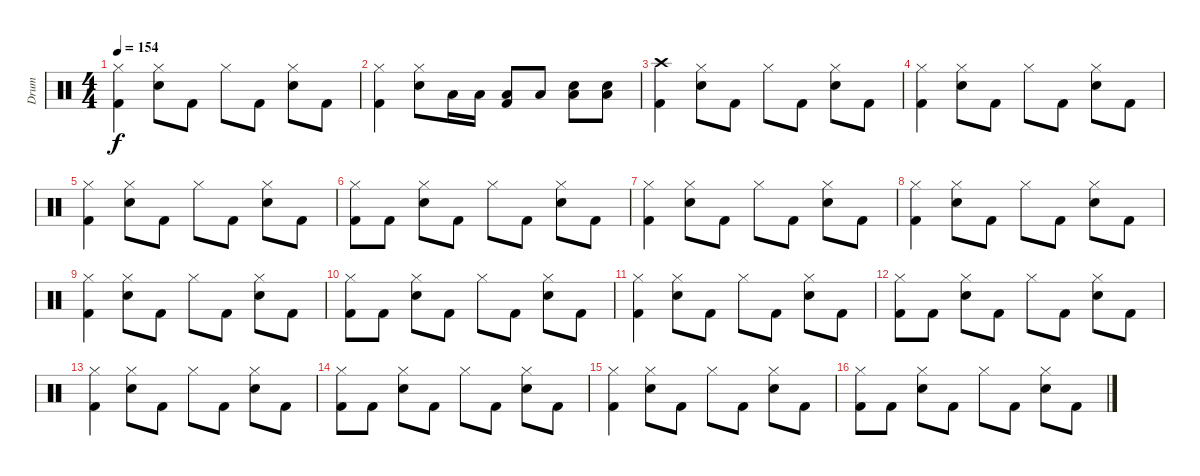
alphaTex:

\track ("Drum" "Drum") {instrument percussion}
\staff {score}
\articulation defaults
\ts (4 4)
\tempo 154
\clef neutral
\ks c
("Hi-Hat (closed)" "Kick (hit) 2").4{dy f} ("Hi-Hat (closed)" "Electric Snare (hit)").8 "Kick (hit) 2".8 "Hi-Hat (closed)".8 "Kick (hit) 2".8 ("Hi-Hat (closed)" "Electric Snare (hit)").8 "Kick (hit) 2".8 |
("Hi-Hat (closed)" "Kick (hit) 2").4 ("Hi-Hat (closed)" "Electric Snare (hit)").8 "Low Tom (hit)".16 "Low Tom (hit)".16 ("Low Tom (hit)" "Kick (hit) 2").8 "Low Tom (hit)".8 ("Electric Snare (hit)" "Low Floor Tom (hit)").8 ("Electric Snare (hit)" "Low Floor Tom (hit)").8 |
("Crash high (hit)" "Kick (hit) 2").4 ("Hi-Hat (closed)" "Electric Snare (hit)").8 "Kick (hit) 2".8 "Hi-Hat (closed)".8 "Kick (hit) 2".8 ("Hi-Hat (closed)" "Electric Snare (hit)").8 "Kick (hit) 2".8 |
("Hi-Hat (closed)" "Kick (hit) 2").4 ("Hi-Hat (closed)" "Electric Snare (hit)").8 "Kick (hit) 2".8 "Hi-Hat (closed)".8 "Kick (hit) 2".8 ("Hi-Hat (closed)" "Electric Snare (hit)").8 "Kick (hit) 2".8 |
("Hi-Hat (closed)" "Kick (hit) 2").4 ("Hi-Hat (closed)" "Electric Snare (hit)").8 "Kick (hit) 2".8 "Hi-Hat (closed)".8 "Kick (hit) 2".8 ("Hi-Hat (closed)" "Electric Snare (hit)").8 "Kick (hit) 2".8 |
("Hi-Hat (closed)" "Kick (hit) 2").8 "Kick (hit) 2".8 ("Hi-Hat (closed)" "Electric Snare (hit)").8 "Kick (hit) 2".8 "Hi-Hat (closed)".8 "Kick (hit) 2".8 ("Hi-Hat (closed)" "Electric Snare (hit)").8 "Kick (hit) 2".8 |
("Hi-Hat (closed)" "Kick (hit) 2").4 ("Hi-Hat (closed)" "Electric Snare (hit)").8 "Kick (hit) 2".8 "Hi-Hat (closed)".8 "Kick (hit) 2".8 ("Hi-Hat (closed)" "Electric Snare (hit)").8 "Kick (hit) 2".8 |
("Hi-Hat (closed)" "Kick (hit) 2").4 ("Hi-Hat (closed)" "Electric Snare (hit)").8 "Kick (hit) 2".8 "Hi-Hat (closed)".8 "Kick (hit) 2".8 ("Hi-Hat (closed)" "Electric Snare (hit)").8 "Kick (hit) 2".8 |
("Hi-Hat (closed)" "Kick (hit) 2").4 ("Hi-Hat (closed)" "Electric Snare (hit)").8 "Kick (hit) 2".8 "Hi-Hat (closed)".8 "Kick (hit) 2".8 ("Hi-Hat (closed)" "Electric Snare (hit)").8 "Kick (hit) 2".8 |
("Hi-Hat (closed)" "Kick (hit) 2").8 "Kick (hit) 2".8 ("Hi-Hat (closed)" "Electric Snare (hit)").8 "Kick (hit) 2".8 "Hi-Hat (closed)".8 "Kick (hit) 2".8 ("Hi-Hat (closed)" "Electric Snare (hit)").8 "Kick (hit) 2".8 |
("Hi-Hat (closed)" "Kick (hit) 2").4 ("Hi-Hat (closed)" "Electric Snare (hit)").8 "Kick (hit) 2".8 "Hi-Hat (closed)".8 "Kick (hit) 2".8 ("Hi-Hat (closed)" "Electric Snare (hit)").8 "Kick (hit) 2".8 |
("Hi-Hat (closed)" "Kick (hit) 2").8 "Kick (hit) 2".8 ("Hi-Hat (closed)" "Electric Snare (hit)").8 "Kick (hit) 2".8 "Hi-Hat (closed)".8 "Kick (hit) 2".8 ("Hi-Hat (closed)" "Electric Snare (hit)").8 "Kick (hit) 2".8 |
("Hi-Hat (closed)" "Kick (hit) 2").4 ("Hi-Hat (closed)" "Electric Snare (hit)").8 "Kick (hit) 2".8 "Hi-Hat (closed)".8 "Kick (hit) 2".8 ("Hi-Hat (closed)" "Electric Snare (hit)").8 "Kick (hit) 2".8 |
("Hi-Hat (closed)" "Kick (hit) 2").8 "Kick (hit) 2".8 ("Hi-Hat (closed)" "Electric Snare (hit)").8 "Kick (hit) 2".8 "Hi-Hat (closed)".8 "Kick (hit) 2".8 ("Hi-Hat (closed)" "Electric Snare (hit)").8 "Kick (hit) 2".8 |
("Hi-Hat (closed)" "Kick (hit) 2").4 ("Hi-Hat (closed)" "Electric Snare (hit)").8 "Kick (hit) 2".8 "Hi-Hat (closed)".8 "Kick (hit) 2".8 ("Hi-Hat (closed)" "Electric Snare (hit)").8 "Kick (hit) 2".8 |
("Hi-Hat (closed)" "Kick (hit) 2").8 "Kick (hit) 2".8 ("Hi-Hat (closed)" "Electric Snare (hit)").8 "Kick (hit) 2".8 "Hi-Hat (closed)".8 "Kick (hit) 2".8 ("Hi-Hat (closed)" "Electric Snare (hit)").8 "Kick (hit) 2".8
